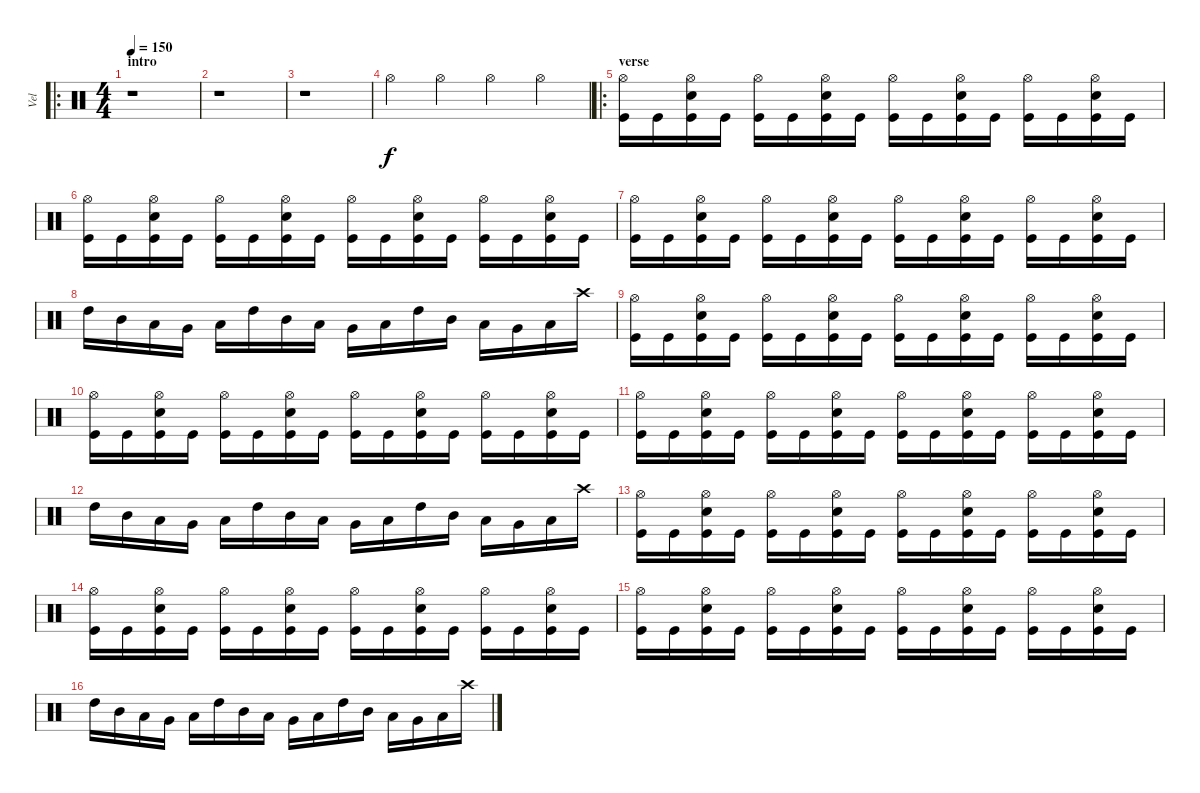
\track ("Vel" "Vel") {instrument percussion}
\staff {score}
\articulation defaults
\ro
\ts (4 4)
\section ("" "intro")
\tempo 150
\clef neutral
\ks c
r.1{dy f} |
r.1 |
r.1 |
"Hi-Hat (open)".4 "Hi-Hat (open)".4 "Hi-Hat (open)".4 "Hi-Hat (open)".4 |
\ro
\section ("" "verse")
("Hi-Hat (open)" "Kick (hit)").16 "Kick (hit)".16 ("Hi-Hat (open)" "Electric Snare (hit)" "Kick (hit)").16 "Kick (hit)".16 ("Hi-Hat (open)" "Kick (hit)").16 "Kick (hit)".16 ("Hi-Hat (open)" "Electric Snare (hit)" "Kick (hit)").16 "Kick (hit)".16 ("Hi-Hat (open)" "Kick (hit)").16 "Kick (hit)".16 ("Hi-Hat (open)" "Electric Snare (hit)" "Kick (hit)").16 "Kick (hit)".16 ("Hi-Hat (open)" "Kick (hit)").16 "Kick (hit)".16 ("Hi-Hat (open)" "Electric Snare (hit)" "Kick (hit)").16 "Kick (hit)".16 |
("Hi-Hat (open)" "Kick (hit)").16 "Kick (hit)".16 ("Hi-Hat (open)" "Electric Snare (hit)" "Kick (hit)").16 "Kick (hit)".16 ("Hi-Hat (open)" "Kick (hit)").16 "Kick (hit)".16 ("Hi-Hat (open)" "Electric Snare (hit)" "Kick (hit)").16 "Kick (hit)".16 ("Hi-Hat (open)" "Kick (hit)").16 "Kick (hit)".16 ("Hi-Hat (open)" "Electric Snare (hit)" "Kick (hit)").16 "Kick (hit)".16 ("Hi-Hat (open)" "Kick (hit)").16 "Kick (hit)".16 ("Hi-Hat (open)" "Electric Snare (hit)" "Kick (hit)").16 "Kick (hit)".16 |
("Hi-Hat (open)" "Kick (hit)").16 "Kick (hit)".16 ("Hi-Hat (open)" "Electric Snare (hit)" "Kick (hit)").16 "Kick (hit)".16 ("Hi-Hat (open)" "Kick (hit)").16 "Kick (hit)".16 ("Hi-Hat (open)" "Electric Snare (hit)" "Kick (hit)").16 "Kick (hit)".16 ("Hi-Hat (open)" "Kick (hit)").16 "Kick (hit)".16 ("Hi-Hat (open)" "Electric Snare (hit)" "Kick (hit)").16 "Kick (hit)".16 ("Hi-Hat (open)" "Kick (hit)").16 "Kick (hit)".16 ("Hi-Hat (open)" "Electric Snare (hit)" "Kick (hit)").16 "Kick (hit)".16 |
"High Tom (hit)".16 "Mid Tom (hit)".16 "Low Tom (hit)".16 "Very Low Tom (hit)".16 "Low Floor Tom (hit)".16 "High Tom (hit)".16 "Mid Tom (hit)".16 "Low Tom (hit)".16 "Very Low Tom (hit)".16 "Low Floor Tom (hit)".16 "High Tom (hit)".16 "Mid Tom (hit)".16 "Low Tom (hit)".16 "Very Low Tom (hit)".16 "Low Floor Tom (hit)".16 "Crash high (hit)".16 |
("Hi-Hat (open)" "Kick (hit)").16 "Kick (hit)".16 ("Hi-Hat (open)" "Electric Snare (hit)" "Kick (hit)").16 "Kick (hit)".16 ("Hi-Hat (open)" "Kick (hit)").16 "Kick (hit)".16 ("Hi-Hat (open)" "Electric Snare (hit)" "Kick (hit)").16 "Kick (hit)".16 ("Hi-Hat (open)" "Kick (hit)").16 "Kick (hit)".16 ("Hi-Hat (open)" "Electric Snare (hit)" "Kick (hit)").16 "Kick (hit)".16 ("Hi-Hat (open)" "Kick (hit)").16 "Kick (hit)".16 ("Hi-Hat (open)" "Electric Snare (hit)" "Kick (hit)").16 "Kick (hit)".16 |
("Hi-Hat (open)" "Kick (hit)").16 "Kick (hit)".16 ("Hi-Hat (open)" "Electric Snare (hit)" "Kick (hit)").16 "Kick (hit)".16 ("Hi-Hat (open)" "Kick (hit)").16 "Kick (hit)".16 ("Hi-Hat (open)" "Electric Snare (hit)" "Kick (hit)").16 "Kick (hit)".16 ("Hi-Hat (open)" "Kick (hit)").16 "Kick (hit)".16 ("Hi-Hat (open)" "Electric Snare (hit)" "Kick (hit)").16 "Kick (hit)".16 ("Hi-Hat (open)" "Kick (hit)").16 "Kick (hit)".16 ("Hi-Hat (open)" "Electric Snare (hit)" "Kick (hit)").16 "Kick (hit)".16 |
("Hi-Hat (open)" "Kick (hit)").16 "Kick (hit)".16 ("Hi-Hat (open)" "Electric Snare (hit)" "Kick (hit)").16 "Kick (hit)".16 ("Hi-Hat (open)" "Kick (hit)").16 "Kick (hit)".16 ("Hi-Hat (open)" "Electric Snare (hit)" "Kick (hit)").16 "Kick (hit)".16 ("Hi-Hat (open)" "Kick (hit)").16 "Kick (hit)".16 ("Hi-Hat (open)" "Electric Snare (hit)" "Kick (hit)").16 "Kick (hit)".16 ("Hi-Hat (open)" "Kick (hit)").16 "Kick (hit)".16 ("Hi-Hat (open)" "Electric Snare (hit)" "Kick (hit)").16 "Kick (hit)".16 |
"High Tom (hit)".16 "Mid Tom (hit)".16 "Low Tom (hit)".16 "Very Low Tom (hit)".16 "Low Floor Tom (hit)".16 "High Tom (hit)".16 "Mid Tom (hit)".16 "Low Tom (hit)".16 "Very Low Tom (hit)".16 "Low Floor Tom (hit)".16 "High Tom (hit)".16 "Mid Tom (hit)".16 "Low Tom (hit)".16 "Very Low Tom (hit)".16 "Low Floor Tom (hit)".16 "Crash high (hit)".16 |
("Hi-Hat (open)" "Kick (hit)").16 "Kick (hit)".16 ("Hi-Hat (open)" "Electric Snare (hit)" "Kick (hit)").16 "Kick (hit)".16 ("Hi-Hat (open)" "Kick (hit)").16 "Kick (hit)".16 ("Hi-Hat (open)" "Electric Snare (hit)" "Kick (hit)").16 "Kick (hit)".16 ("Hi-Hat (open)" "Kick (hit)").16 "Kick (hit)".16 ("Hi-Hat (open)" "Electric Snare (hit)" "Kick (hit)").16 "Kick (hit)".16 ("Hi-Hat (open)" "Kick (hit)").16 "Kick (hit)".16 ("Hi-Hat (open)" "Electric Snare (hit)" "Kick (hit)").16 "Kick (hit)".16 |
("Hi-Hat (open)" "Kick (hit)").16 "Kick (hit)".16 ("Hi-Hat (open)" "Electric Snare (hit)" "Kick (hit)").16 "Kick (hit)".16 ("Hi-Hat (open)" "Kick (hit)").16 "Kick (hit)".16 ("Hi-Hat (open)" "Electric Snare (hit)" "Kick (hit)").16 "Kick (hit)".16 ("Hi-Hat (open)" "Kick (hit)").16 "Kick (hit)".16 ("Hi-Hat (open)" "Electric Snare (hit)" "Kick (hit)").16 "Kick (hit)".16 ("Hi-Hat (open)" "Kick (hit)").16 "Kick (hit)".16 ("Hi-Hat (open)" "Electric Snare (hit)" "Kick (hit)").16 "Kick (hit)".16 |
("Hi-Hat (open)" "Kick (hit)").16 "Kick (hit)".16 ("Hi-Hat (open)" "Electric Snare (hit)" "Kick (hit)").16 "Kick (hit)".16 ("Hi-Hat (open)" "Kick (hit)").16 "Kick (hit)".16 ("Hi-Hat (open)" "Electric Snare (hit)" "Kick (hit)").16 "Kick (hit)".16 ("Hi-Hat (open)" "Kick (hit)").16 "Kick (hit)".16 ("Hi-Hat (open)" "Electric Snare (hit)" "Kick (hit)").16 "Kick (hit)".16 ("Hi-Hat (open)" "Kick (hit)").16 "Kick (hit)".16 ("Hi-Hat (open)" "Electric Snare (hit)" "Kick (hit)").16 "Kick (hit)".16 |
"High Tom (hit)".16 "Mid Tom (hit)".16 "Low Tom (hit)".16 "Very Low Tom (hit)".16 "Low Floor Tom (hit)".16 "High Tom (hit)".16 "Mid Tom (hit)".16 "Low Tom (hit)".16 "Very Low Tom (hit)".16 "Low Floor Tom (hit)".16 "High Tom (hit)".16 "Mid Tom (hit)".16 "Low Tom (hit)".16 "Very Low Tom (hit)".16 "Low Floor Tom (hit)".16 "Crash high (hit)".16
